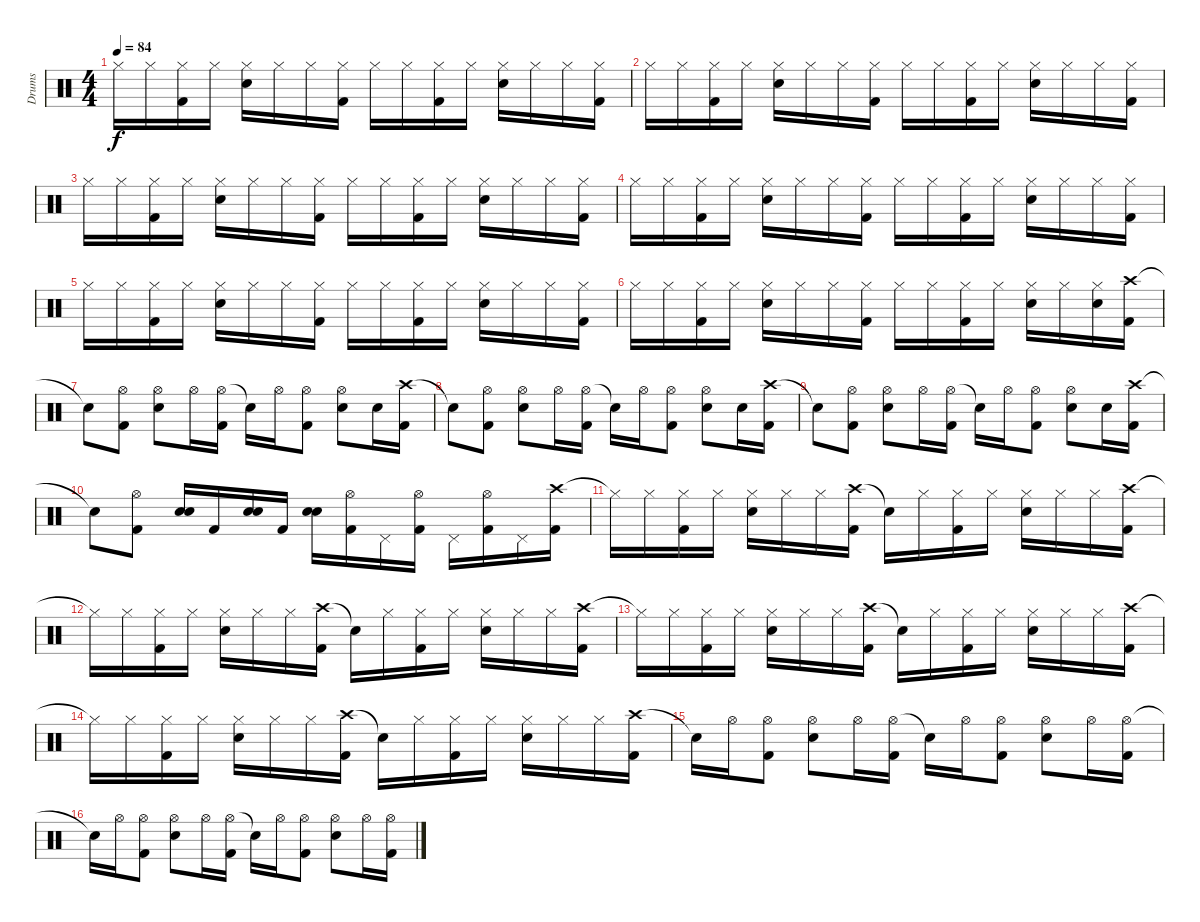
\track ("Drums" "Drums") {instrument percussion}
\staff {score}
\articulation defaults
\ts (4 4)
\tempo 84
\clef neutral
\ks c "Hi-Hat (closed)".16{dy f} "Hi-Hat (closed)".16
("Hi-Hat (closed)" "Kick (hit) 2").16 "Hi-Hat (closed)".16 ("Hi-Hat (closed)" "Snare (hit) 2").16 "Hi-Hat (closed)".16 "Hi-Hat (closed)".16 ("Hi-Hat (closed)" "Kick (hit) 2").16 "Hi-Hat (closed)".16 "Hi-Hat (closed)".16 ("Hi-Hat (closed)" "Kick (hit) 2").16 "Hi-Hat (closed)".16 ("Hi-Hat (closed)" "Snare (hit) 2").16 "Hi-Hat (closed)".16 "Hi-Hat (closed)".16 ("Hi-Hat (closed)" "Kick (hit) 2").16 |
"Hi-Hat (closed)".16 "Hi-Hat (closed)".16 ("Hi-Hat (closed)" "Kick (hit) 2").16 "Hi-Hat (closed)".16 ("Hi-Hat (closed)" "Snare (hit) 2").16 "Hi-Hat (closed)".16 "Hi-Hat (closed)".16 ("Hi-Hat (closed)" "Kick (hit) 2").16 "Hi-Hat (closed)".16 "Hi-Hat (closed)".16 ("Hi-Hat (closed)" "Kick (hit) 2").16 "Hi-Hat (closed)".16 ("Hi-Hat (closed)" "Snare (hit) 2").16 "Hi-Hat (closed)".16 "Hi-Hat (closed)".16 ("Hi-Hat (closed)" "Kick (hit) 2").16 |
"Hi-Hat (closed)".16 "Hi-Hat (closed)".16 ("Hi-Hat (closed)" "Kick (hit) 2").16 "Hi-Hat (closed)".16 ("Hi-Hat (closed)" "Snare (hit) 2").16 "Hi-Hat (closed)".16 "Hi-Hat (closed)".16 ("Hi-Hat (closed)" "Kick (hit) 2").16 "Hi-Hat (closed)".16 "Hi-Hat (closed)".16 ("Hi-Hat (closed)" "Kick (hit) 2").16 "Hi-Hat (closed)".16 ("Hi-Hat (closed)" "Snare (hit) 2").16 "Hi-Hat (closed)".16 "Hi-Hat (closed)".16 ("Hi-Hat (closed)" "Kick (hit) 2").16 |
"Hi-Hat (closed)".16 "Hi-Hat (closed)".16 ("Hi-Hat (closed)" "Kick (hit) 2").16 "Hi-Hat (closed)".16 ("Hi-Hat (closed)" "Snare (hit) 2").16 "Hi-Hat (closed)".16 "Hi-Hat (closed)".16 ("Hi-Hat (closed)" "Kick (hit) 2").16 "Hi-Hat (closed)".16 "Hi-Hat (closed)".16 ("Hi-Hat (closed)" "Kick (hit) 2").16 "Hi-Hat (closed)".16 ("Hi-Hat (closed)" "Snare (hit) 2").16 "Hi-Hat (closed)".16 "Hi-Hat (closed)".16 ("Hi-Hat (closed)" "Kick (hit) 2").16 |
"Hi-Hat (closed)".16 "Hi-Hat (closed)".16 ("Hi-Hat (closed)" "Kick (hit) 2").16 "Hi-Hat (closed)".16 ("Hi-Hat (closed)" "Snare (hit) 2").16 "Hi-Hat (closed)".16 "Hi-Hat (closed)".16 ("Hi-Hat (closed)" "Kick (hit) 2").16 "Hi-Hat (closed)".16 "Hi-Hat (closed)".16 ("Hi-Hat (closed)" "Kick (hit) 2").16 "Hi-Hat (closed)".16 ("Hi-Hat (closed)" "Snare (hit) 2").16 "Hi-Hat (closed)".16 "Hi-Hat (closed)".16 ("Hi-Hat (closed)" "Kick (hit) 2").16 |
"Hi-Hat (closed)".16 "Hi-Hat (closed)".16 ("Hi-Hat (closed)" "Kick (hit) 2").16 "Hi-Hat (closed)".16 ("Hi-Hat (closed)" "Snare (hit) 2").16 "Hi-Hat (closed)".16 "Hi-Hat (closed)".16 ("Hi-Hat (closed)" "Kick (hit) 2").16 "Hi-Hat (closed)".16 "Hi-Hat (closed)".16 ("Hi-Hat (closed)" "Kick (hit) 2").16 "Hi-Hat (closed)".16 ("Hi-Hat (closed)" "Snare (hit) 2").16 "Hi-Hat (closed)".16 ("Hi-Hat (closed)" "Snare (hit) 2").16 ("Crash high (hit)" "Kick (hit) 2").16 |
"Snare (hit)"{t}.8 ("Hi-Hat (open)" "Kick (hit) 2").8 ("Hi-Hat (open)" "Snare (hit) 2").8 "Hi-Hat (open)".16 ("Hi-Hat (open)" "Kick (hit) 2").16 "Snare (hit)"{t}.16 "Hi-Hat (open)".16 ("Hi-Hat (open)" "Kick (hit) 2").8 ("Hi-Hat (open)" "Snare (hit) 2").8 "Snare (hit) 2".16 ("Crash high (hit)" "Kick (hit) 2").16 |
"Snare (hit)"{t}.8 ("Hi-Hat (open)" "Kick (hit) 2").8 ("Hi-Hat (open)" "Snare (hit) 2").8 "Hi-Hat (open)".16 ("Hi-Hat (open)" "Kick (hit) 2").16 "Snare (hit)"{t}.16 "Hi-Hat (open)".16 ("Hi-Hat (open)" "Kick (hit) 2").8 ("Hi-Hat (open)" "Snare (hit) 2").8 "Snare (hit) 2".16 ("Crash high (hit)" "Kick (hit) 2").16 |
"Snare (hit)"{t}.8 ("Hi-Hat (open)" "Kick (hit) 2").8 ("Hi-Hat (open)" "Snare (hit) 2").8 "Hi-Hat (open)".16 ("Hi-Hat (open)" "Kick (hit) 2").16 "Snare (hit)"{t}.16 "Hi-Hat (open)".16 ("Hi-Hat (open)" "Kick (hit) 2").8 ("Hi-Hat (open)" "Snare (hit) 2").8 "Snare (hit) 2".16 ("Crash high (hit)" "Kick (hit) 2").16 |
"Snare (hit)"{t}.8 ("Hi-Hat (open)" "Kick (hit) 2").8 ("Snare (hit) 2" "Snare (hit) 2").16 "Kick (hit) 2".16 ("Snare (hit) 2" "Snare (hit) 2").16 "Kick (hit) 2".16 ("Snare (hit) 2" "Snare (hit) 2").16 ("Hi-Hat (open)" "Kick (hit) 2").16 "Pedal Hi-Hat (hit)".16 ("Hi-Hat (open)" "Kick (hit) 2").16 "Pedal Hi-Hat (hit)".16 ("Hi-Hat (open)" "Kick (hit) 2").16 "Pedal Hi-Hat (hit)".16 ("Crash high (hit)" "Kick (hit) 2").16 |
"Hi-Hat (closed)"{t}.16 "Hi-Hat (closed)".16 ("Hi-Hat (closed)" "Kick (hit) 2").16 "Hi-Hat (closed)".16 ("Hi-Hat (closed)" "Snare (hit) 2").16 "Hi-Hat (closed)".16 "Hi-Hat (closed)".16 ("Crash high (hit)" "Kick (hit) 2").16 "Snare (hit) 2"{t}.16 "Hi-Hat (closed)".16 ("Hi-Hat (closed)" "Kick (hit) 2").16 "Hi-Hat (closed)".16 ("Hi-Hat (closed)" "Snare (hit) 2").16 "Hi-Hat (closed)".16 "Hi-Hat (closed)".16 ("Crash high (hit)" "Kick (hit) 2").16 |
"Hi-Hat (closed)"{t}.16 "Hi-Hat (closed)".16 ("Hi-Hat (closed)" "Kick (hit) 2").16 "Hi-Hat (closed)".16 ("Hi-Hat (closed)" "Snare (hit) 2").16 "Hi-Hat (closed)".16 "Hi-Hat (closed)".16 ("Crash high (hit)" "Kick (hit) 2").16 "Snare (hit) 2"{t}.16 "Hi-Hat (closed)".16 ("Hi-Hat (closed)" "Kick (hit) 2").16 "Hi-Hat (closed)".16 ("Hi-Hat (closed)" "Snare (hit) 2").16 "Hi-Hat (closed)".16 "Hi-Hat (closed)".16 ("Crash high (hit)" "Kick (hit) 2").16 |
"Hi-Hat (closed)"{t}.16 "Hi-Hat (closed)".16 ("Hi-Hat (closed)" "Kick (hit) 2").16 "Hi-Hat (closed)".16 ("Hi-Hat (closed)" "Snare (hit) 2").16 "Hi-Hat (closed)".16 "Hi-Hat (closed)".16 ("Crash high (hit)" "Kick (hit) 2").16 "Snare (hit) 2"{t}.16 "Hi-Hat (closed)".16 ("Hi-Hat (closed)" "Kick (hit) 2").16 "Hi-Hat (closed)".16 ("Hi-Hat (closed)" "Snare (hit) 2").16 "Hi-Hat (closed)".16 "Hi-Hat (closed)".16 ("Crash high (hit)" "Kick (hit) 2").16 |
"Hi-Hat (closed)"{t}.16 "Hi-Hat (closed)".16 ("Hi-Hat (closed)" "Kick (hit) 2").16 "Hi-Hat (closed)".16 ("Hi-Hat (closed)" "Snare (hit) 2").16 "Hi-Hat (closed)".16 "Hi-Hat (closed)".16 ("Crash high (hit)" "Kick (hit) 2").16 "Snare (hit) 2"{t}.16 "Hi-Hat (closed)".16 ("Hi-Hat (closed)" "Kick (hit) 2").16 "Hi-Hat (closed)".16 ("Hi-Hat (closed)" "Snare (hit) 2").16 "Hi-Hat (closed)".16 "Hi-Hat (closed)".16 ("Crash high (hit)" "Kick (hit) 2").16 |
"Snare (hit)"{t}.16 "Hi-Hat (open)".16 ("Hi-Hat (open)" "Kick (hit) 2").8 ("Hi-Hat (open)" "Snare (hit) 2").8 "Hi-Hat (open)".16 ("Hi-Hat (open)" "Kick (hit) 2").16 "Snare (hit)"{t}.16 "Hi-Hat (open)".16 ("Hi-Hat (open)" "Kick (hit) 2").8 ("Hi-Hat (open)" "Snare (hit) 2").8 "Hi-Hat (open)".16 ("Hi-Hat (open)" "Kick (hit) 2").16 |
"Snare (hit)"{t}.16 "Hi-Hat (open)".16 ("Hi-Hat (open)" "Kick (hit) 2").8 ("Hi-Hat (open)" "Snare (hit) 2").8 "Hi-Hat (open)".16 ("Hi-Hat (open)" "Kick (hit) 2").16 "Snare (hit)"{t}.16 "Hi-Hat (open)".16 ("Hi-Hat (open)" "Kick (hit) 2").8 ("Hi-Hat (open)" "Snare (hit) 2").8 "Hi-Hat (open)".16 ("Hi-Hat (open)" "Kick (hit) 2").16
